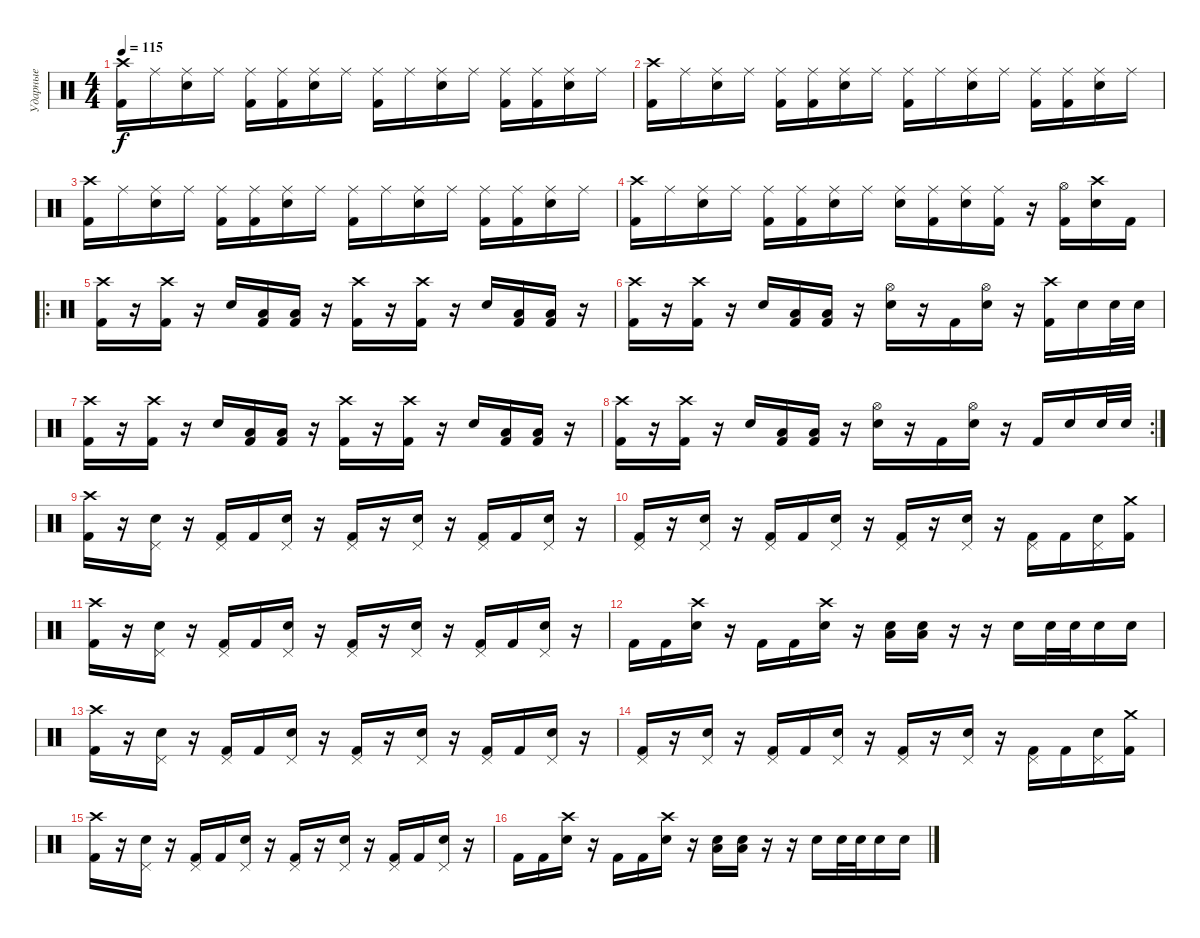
\track ("Ударные" "Ударные") {instrument percussion}
\staff
\articulation defaults
\ts (4 4)
\tempo 115
\clef neutral
\ks c
("Crash high (hit)" "Kick (hit) 2").16{dy f} "Ride (middle)".16 ("Ride (middle)" "Electric Snare (hit)").16 "Ride (middle)".16 ("Ride (middle)" "Kick (hit) 2").16 ("Ride (middle)" "Kick (hit) 2").16 ("Ride (middle)" "Electric Snare (hit)").16 "Ride (middle)".16 ("Ride (middle)" "Kick (hit) 2").16 "Ride (middle)".16 ("Ride (middle)" "Electric Snare (hit)").16 "Ride (middle)".16 ("Ride (middle)" "Kick (hit) 2").16 ("Ride (middle)" "Kick (hit) 2").16 ("Ride (middle)" "Electric Snare (hit)").16 "Ride (middle)".16 |
("Crash high (hit)" "Kick (hit) 2").16 "Ride (middle)".16 ("Ride (middle)" "Electric Snare (hit)").16 "Ride (middle)".16 ("Ride (middle)" "Kick (hit) 2").16 ("Ride (middle)" "Kick (hit) 2").16 ("Ride (middle)" "Electric Snare (hit)").16 "Ride (middle)".16 ("Ride (middle)" "Kick (hit) 2").16 "Ride (middle)".16 ("Ride (middle)" "Electric Snare (hit)").16 "Ride (middle)".16 ("Ride (middle)" "Kick (hit) 2").16 ("Ride (middle)" "Kick (hit) 2").16 ("Ride (middle)" "Electric Snare (hit)").16 "Ride (middle)".16 |
("Crash high (hit)" "Kick (hit) 2").16 "Ride (middle)".16 ("Ride (middle)" "Electric Snare (hit)").16 "Ride (middle)".16 ("Ride (middle)" "Kick (hit) 2").16 ("Ride (middle)" "Kick (hit) 2").16 ("Ride (middle)" "Electric Snare (hit)").16 "Ride (middle)".16 ("Ride (middle)" "Kick (hit) 2").16 "Ride (middle)".16 ("Ride (middle)" "Electric Snare (hit)").16 "Ride (middle)".16 ("Ride (middle)" "Kick (hit) 2").16 ("Ride (middle)" "Kick (hit) 2").16 ("Ride (middle)" "Electric Snare (hit)").16 "Ride (middle)".16 |
("Crash high (hit)" "Kick (hit) 2").16 "Ride (middle)".16 ("Ride (middle)" "Electric Snare (hit)").16 "Ride (middle)".16 ("Ride (middle)" "Kick (hit) 2").16 ("Ride (middle)" "Kick (hit) 2").16 ("Ride (middle)" "Electric Snare (hit)").16 "Ride (middle)".16 ("Ride (middle)" "Electric Snare (hit)").16 ("Ride (middle)" "Kick (hit) 2").16 ("Ride (middle)" "Electric Snare (hit)").16 ("Ride (middle)" "Kick (hit) 2").16 r.16 ("Hi-Hat (open)" "Kick (hit) 2").16 ("Crash high (hit)" "Electric Snare (hit)").16 "Kick (hit) 2".16 |
\ro
("Crash high (hit)" "Kick (hit) 2").16 r.16 ("Crash high (hit)" "Kick (hit) 2").16 r.16 "Electric Snare (hit)".16 ("Low Tom (hit)" "Kick (hit) 2").16 ("Low Tom (hit)" "Kick (hit) 2").16 r.16 ("Crash high (hit)" "Kick (hit) 2").16 r.16 ("Crash high (hit)" "Kick (hit) 2").16 r.16 "Electric Snare (hit)".16 ("Low Tom (hit)" "Kick (hit) 2").16 ("Low Tom (hit)" "Kick (hit) 2").16 r.16 |
("Crash high (hit)" "Kick (hit) 2").16 r.16 ("Crash high (hit)" "Kick (hit) 2").16 r.16 "Electric Snare (hit)".16 ("Low Tom (hit)" "Kick (hit) 2").16 ("Low Tom (hit)" "Kick (hit) 2").16 r.16 ("Hi-Hat (open)" "Electric Snare (hit)").16 r.16 "Kick (hit) 2".16 ("Hi-Hat (open)" "Electric Snare (hit)").16 r.16 ("Crash high (hit)" "Kick (hit) 2").16 "Electric Snare (hit)".16 "Electric Snare (hit)".32 "Electric Snare (hit)".32 |
("Crash high (hit)" "Kick (hit) 2").16 r.16 ("Crash high (hit)" "Kick (hit) 2").16 r.16 "Electric Snare (hit)".16 ("Low Tom (hit)" "Kick (hit) 2").16 ("Low Tom (hit)" "Kick (hit) 2").16 r.16 ("Crash high (hit)" "Kick (hit) 2").16 r.16 ("Crash high (hit)" "Kick (hit) 2").16 r.16 "Electric Snare (hit)".16 ("Low Tom (hit)" "Kick (hit) 2").16 ("Low Tom (hit)" "Kick (hit) 2").16 r.16 |
\rc 2
("Crash high (hit)" "Kick (hit) 2").16 r.16 ("Crash high (hit)" "Kick (hit) 2").16 r.16 "Electric Snare (hit)".16 ("Low Tom (hit)" "Kick (hit) 2").16 ("Low Tom (hit)" "Kick (hit) 2").16 r.16 ("Hi-Hat (open)" "Electric Snare (hit)").16 r.16 "Kick (hit) 2".16 ("Hi-Hat (open)" "Electric Snare (hit)").16 r.16 "Kick (hit) 2".16 "Electric Snare (hit)".16 "Electric Snare (hit)".32 "Electric Snare (hit)".32 |
("Crash high (hit)" "Kick (hit) 2").16 r.16 ("Pedal Hi-Hat (hit)" "Electric Snare (hit)").16 r.16 ("Pedal Hi-Hat (hit)" "Kick (hit) 2").16 "Kick (hit) 2".16 ("Pedal Hi-Hat (hit)" "Electric Snare (hit)").16 r.16 ("Pedal Hi-Hat (hit)" "Kick (hit) 2").16 r.16 ("Pedal Hi-Hat (hit)" "Electric Snare (hit)").16 r.16 ("Pedal Hi-Hat (hit)" "Kick (hit) 2").16 "Kick (hit) 2".16 ("Pedal Hi-Hat (hit)" "Electric Snare (hit)").16 r.16 |
("Pedal Hi-Hat (hit)" "Kick (hit) 2").16 r.16 ("Pedal Hi-Hat (hit)" "Electric Snare (hit)").16 r.16 ("Pedal Hi-Hat (hit)" "Kick (hit) 2").16 "Kick (hit) 2".16 ("Pedal Hi-Hat (hit)" "Electric Snare (hit)").16 r.16 ("Pedal Hi-Hat (hit)" "Kick (hit) 2").16 r.16 ("Pedal Hi-Hat (hit)" "Electric Snare (hit)").16 r.16 ("Pedal Hi-Hat (hit)" "Kick (hit) 2").16 "Kick (hit) 2".16 ("Pedal Hi-Hat (hit)" "Electric Snare (hit)").16 ("Crash medium (hit)" "Kick (hit) 2").16 |
("Crash high (hit)" "Kick (hit) 2").16 r.16 ("Pedal Hi-Hat (hit)" "Electric Snare (hit)").16 r.16 ("Pedal Hi-Hat (hit)" "Kick (hit) 2").16 "Kick (hit) 2".16 ("Pedal Hi-Hat (hit)" "Electric Snare (hit)").16 r.16 ("Pedal Hi-Hat (hit)" "Kick (hit) 2").16 r.16 ("Pedal Hi-Hat (hit)" "Electric Snare (hit)").16 r.16 ("Pedal Hi-Hat (hit)" "Kick (hit) 2").16 "Kick (hit) 2".16 ("Pedal Hi-Hat (hit)" "Electric Snare (hit)").16 r.16 |
"Kick (hit) 2".16 "Kick (hit) 2".16 ("Crash high (hit)" "Electric Snare (hit)").16 r.16 "Kick (hit) 2".16 "Kick (hit) 2".16 ("Crash high (hit)" "Electric Snare (hit)").16 r.16 ("Electric Snare (hit)" "Low Tom (hit)").16 ("Electric Snare (hit)" "Low Tom (hit)").16 r.16 r.16 "Electric Snare (hit)".16 "Electric Snare (hit)".32 "Electric Snare (hit)".32 "Electric Snare (hit)".16 "Electric Snare (hit)".16 |
("Crash high (hit)" "Kick (hit) 2").16 r.16 ("Pedal Hi-Hat (hit)" "Electric Snare (hit)").16 r.16 ("Pedal Hi-Hat (hit)" "Kick (hit) 2").16 "Kick (hit) 2".16 ("Pedal Hi-Hat (hit)" "Electric Snare (hit)").16 r.16 ("Pedal Hi-Hat (hit)" "Kick (hit) 2").16 r.16 ("Pedal Hi-Hat (hit)" "Electric Snare (hit)").16 r.16 ("Pedal Hi-Hat (hit)" "Kick (hit) 2").16 "Kick (hit) 2".16 ("Pedal Hi-Hat (hit)" "Electric Snare (hit)").16 r.16 |
("Pedal Hi-Hat (hit)" "Kick (hit) 2").16 r.16 ("Pedal Hi-Hat (hit)" "Electric Snare (hit)").16 r.16 ("Pedal Hi-Hat (hit)" "Kick (hit) 2").16 "Kick (hit) 2".16 ("Pedal Hi-Hat (hit)" "Electric Snare (hit)").16 r.16 ("Pedal Hi-Hat (hit)" "Kick (hit) 2").16 r.16 ("Pedal Hi-Hat (hit)" "Electric Snare (hit)").16 r.16 ("Pedal Hi-Hat (hit)" "Kick (hit) 2").16 "Kick (hit) 2".16 ("Pedal Hi-Hat (hit)" "Electric Snare (hit)").16 ("Crash medium (hit)" "Kick (hit) 2").16 |
("Crash high (hit)" "Kick (hit) 2").16 r.16 ("Pedal Hi-Hat (hit)" "Electric Snare (hit)").16 r.16 ("Pedal Hi-Hat (hit)" "Kick (hit) 2").16 "Kick (hit) 2".16 ("Pedal Hi-Hat (hit)" "Electric Snare (hit)").16 r.16 ("Pedal Hi-Hat (hit)" "Kick (hit) 2").16 r.16 ("Pedal Hi-Hat (hit)" "Electric Snare (hit)").16 r.16 ("Pedal Hi-Hat (hit)" "Kick (hit) 2").16 "Kick (hit) 2".16 ("Pedal Hi-Hat (hit)" "Electric Snare (hit)").16 r.16 |
"Kick (hit) 2".16 "Kick (hit) 2".16 ("Crash high (hit)" "Electric Snare (hit)").16 r.16 "Kick (hit) 2".16 "Kick (hit) 2".16 ("Crash high (hit)" "Electric Snare (hit)").16 r.16 ("Electric Snare (hit)" "Low Tom (hit)").16 ("Electric Snare (hit)" "Low Tom (hit)").16 r.16 r.16 "Electric Snare (hit)".16 "Electric Snare (hit)".32 "Electric Snare (hit)".32 "Electric Snare (hit)".16 "Electric Snare (hit)".16
